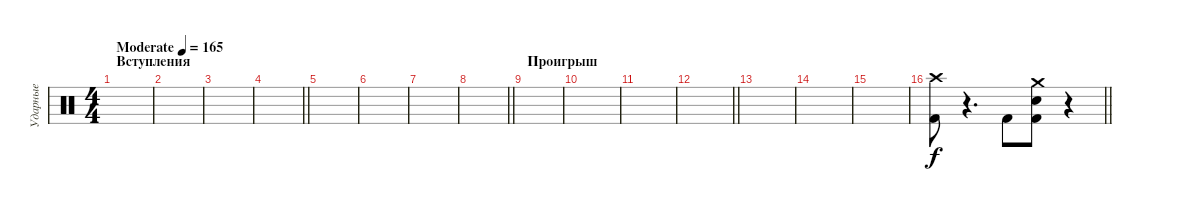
\track ("Ударные" "Ударные") {instrument percussion}
\staff {score}
\articulation defaults
\ts (4 4)
\section ("" "Вступления")
\tempo (165 "Moderate")
\clef neutral
\ks c
|
|
|
\barLineRight lightlight
|
|
|
|
\barLineRight lightlight
|
\section ("" "Проигрыш ")
|
|
|
\barLineRight lightlight
|
|
|
|
\barLineRight lightlight
("Crash high (hit)" "Kick (hit) 2").8 r.4{d} "Kick (hit) 2".8 ("Kick (hit) 2" "Snare (hit) 2" "Crash medium (hit)").8 r.4
